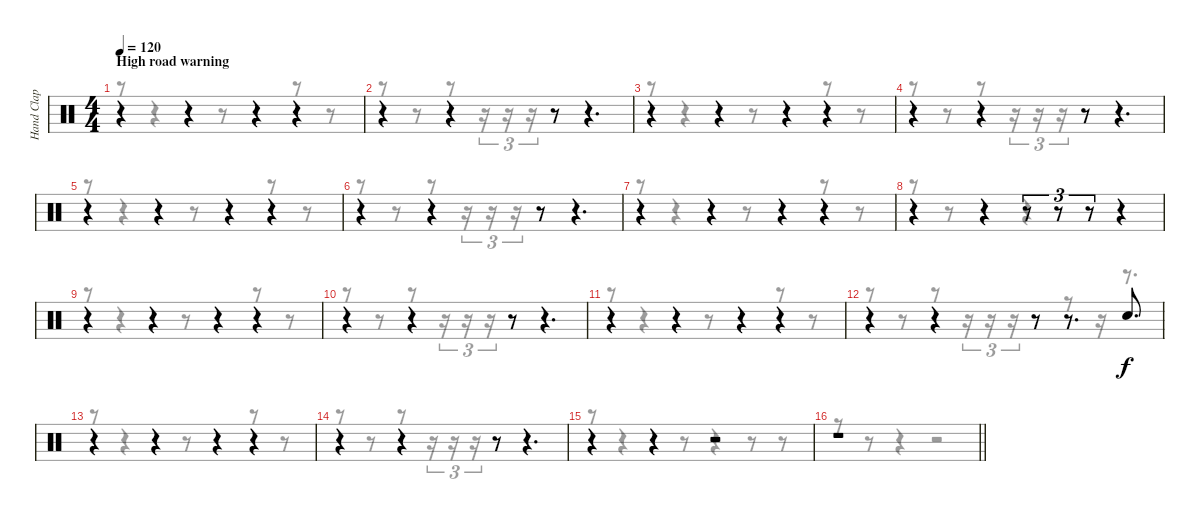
\track ("Hand Clap" "Hand Clap") {instrument percussion}
\staff {score}
\articulation defaults
\voice
\ts (4 4)
\section ("" "High road warning")
\tempo 120
\clef neutral
\ks c
r.4{dy f} r.4 r.4 r.4 |
r.4 r.4 r.8 r.4{d} |
r.4 r.4 r.4 r.4 |
r.4 r.4 r.8 r.4{d} |
r.4 r.4 r.4 r.4 |
r.4 r.4 r.8 r.4{d} |
r.4 r.4 r.4 r.4 |
r.4 r.4 r.8{tu (3 2)} r.8{tu (3 2)} r.8{tu (3 2)} r.4 |
r.4 r.4 r.4 r.4 |
r.4 r.4 r.8 r.4{d} |
r.4 r.4 r.4 r.4 |
r.4 r.4 r.8 r.8{d} "Hand Clap (hit)".8{d} |
r.4 r.4 r.4 r.4 |
r.4 r.4 r.8 r.4{d} |
r.4 r.4 r.2 |
\barLineRight lightlight
r.1
\voice
\clef neutral
\ottava regular
\simile none
\ks c
r.8{dy f} r.4 r.8 r.4 r.8 r.8 |
r.8 r.8 r.8 r.16{tu (3 2)} r.16{tu (3 2)} r.16{tu (3 2)} r.8 r.4{d} |
r.8 r.4 r.8 r.4 r.8 r.8 |
r.8 r.8 r.8 r.16{tu (3 2)} r.16{tu (3 2)} r.16{tu (3 2)} r.8 r.4{d} |
r.8 r.4 r.8 r.4 r.8 r.8 |
r.8 r.8 r.8 r.16{tu (3 2)} r.16{tu (3 2)} r.16{tu (3 2)} r.8 r.4{d} |
r.8 r.4 r.8 r.4 r.8 r.8 |
r.8 r.8 r.4 r.4 r.4 |
r.8 r.4 r.8 r.4 r.8 r.8 |
r.8 r.8 r.8 r.16{tu (3 2)} r.16{tu (3 2)} r.16{tu (3 2)} r.8 r.4{d} |
r.8 r.4 r.8 r.4 r.8 r.8 |
r.8 r.8 r.8 r.16{tu (3 2)} r.16{tu (3 2)} r.16{tu (3 2)} r.8 r.8 r.16 r.8{d} |
r.8 r.4 r.8 r.4 r.8 r.8 |
r.8 r.8 r.8 r.16{tu (3 2)} r.16{tu (3 2)} r.16{tu (3 2)} r.8 r.4{d} |
r.8 r.4 r.8 r.4 r.8 r.8 |
\barLineRight lightlight
r.8 r.8 r.4 r.2
